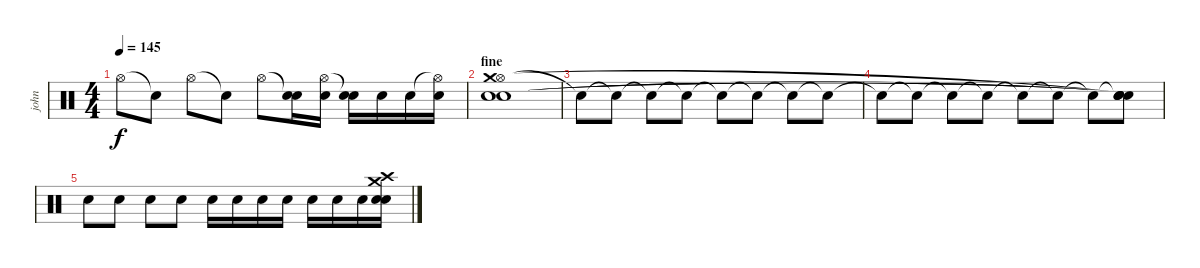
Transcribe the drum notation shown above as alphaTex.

\track ("john" "john") {instrument percussion}
\staff {score}
\articulation defaults
\ts (4 4)
\tempo 145
\clef neutral
\ks c "Hi-Hat (open)".8{dy f} "Snare (hit)"{t}.8 "Hi-Hat (open)".8 "Snare (hit)"{t}.8 "Hi-Hat (open)".8
("Snare (hit)"{t} "Snare (hit) 2").16 ("Hi-Hat (open)" "Snare (hit) 2").16 ("Snare (hit)"{t} "Snare (hit) 2").16 "Snare (hit) 2".16 "Snare (hit) 2".16 ("Hi-Hat (open)"{t} "Snare (hit) 2").16 |
\section ("" "fine")
("Hi-Hat (open)" "Snare (hit) 2" "Electric Snare (hit)" "Crash medium (hit)").1 |
"Snare (hit)"{t}.8 "Snare (hit)"{t}.8 "Snare (hit)"{t}.8 "Snare (hit)"{t}.8 "Snare (hit)"{t}.8 "Snare (hit)"{t}.8 "Snare (hit)"{t}.8 "Snare (hit)"{t}.8 |
"Snare (hit)"{t}.8 "Snare (hit)"{t}.8 "Snare (hit)"{t}.8 "Snare (hit)"{t}.8 "Snare (hit)"{t}.8 "Snare (hit)"{t}.8 "Snare (hit)"{t}.8 ("Snare (hit)"{t} "Snare (hit)"{t} "Snare (hit)"{t} "Snare (hit)"{t}).8 |
"Snare (hit) 2".8 "Snare (hit) 2".8 "Snare (hit) 2".8 "Snare (hit) 2".8 "Snare (hit) 2".16 "Snare (hit) 2".16 "Snare (hit) 2".16 "Snare (hit) 2".16 "Snare (hit) 2".16 "Snare (hit) 2".16 "Snare (hit) 2".16 ("Snare (hit) 2" "Crash high (hit)" "Electric Snare (hit)" "Crash medium (hit)").16
